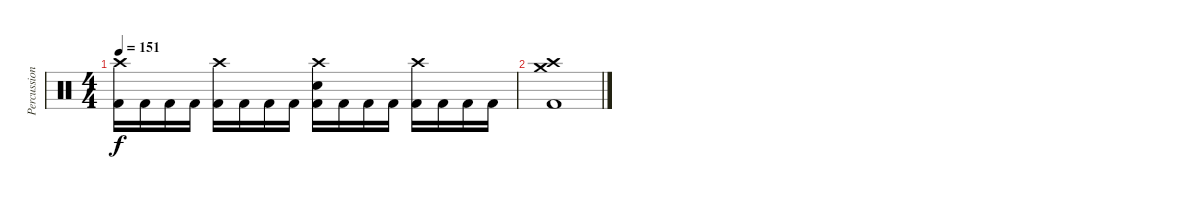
\track ("Percussion" "Percussion") {instrument percussion}
\staff {score}
\articulation defaults
\ts (4 4)
\tempo 151
\clef neutral
\ks c
("Crash high (hit)" "Kick (hit) 2").16{dy f} "Kick (hit) 2".16 "Kick (hit) 2".16 "Kick (hit) 2".16 ("Crash high (hit)" "Kick (hit) 2").16 "Kick (hit) 2".16 "Kick (hit) 2".16 "Kick (hit) 2".16 ("Crash high (hit)" "Electric Snare (hit)" "Kick (hit) 2").16 "Kick (hit) 2".16 "Kick (hit) 2".16 "Kick (hit) 2".16 ("Crash high (hit)" "Kick (hit) 2").16 "Kick (hit) 2".16 "Kick (hit) 2".16 "Kick (hit) 2".16 |
("Crash medium (hit)" "Crash high (hit)" "Kick (hit) 2").1
